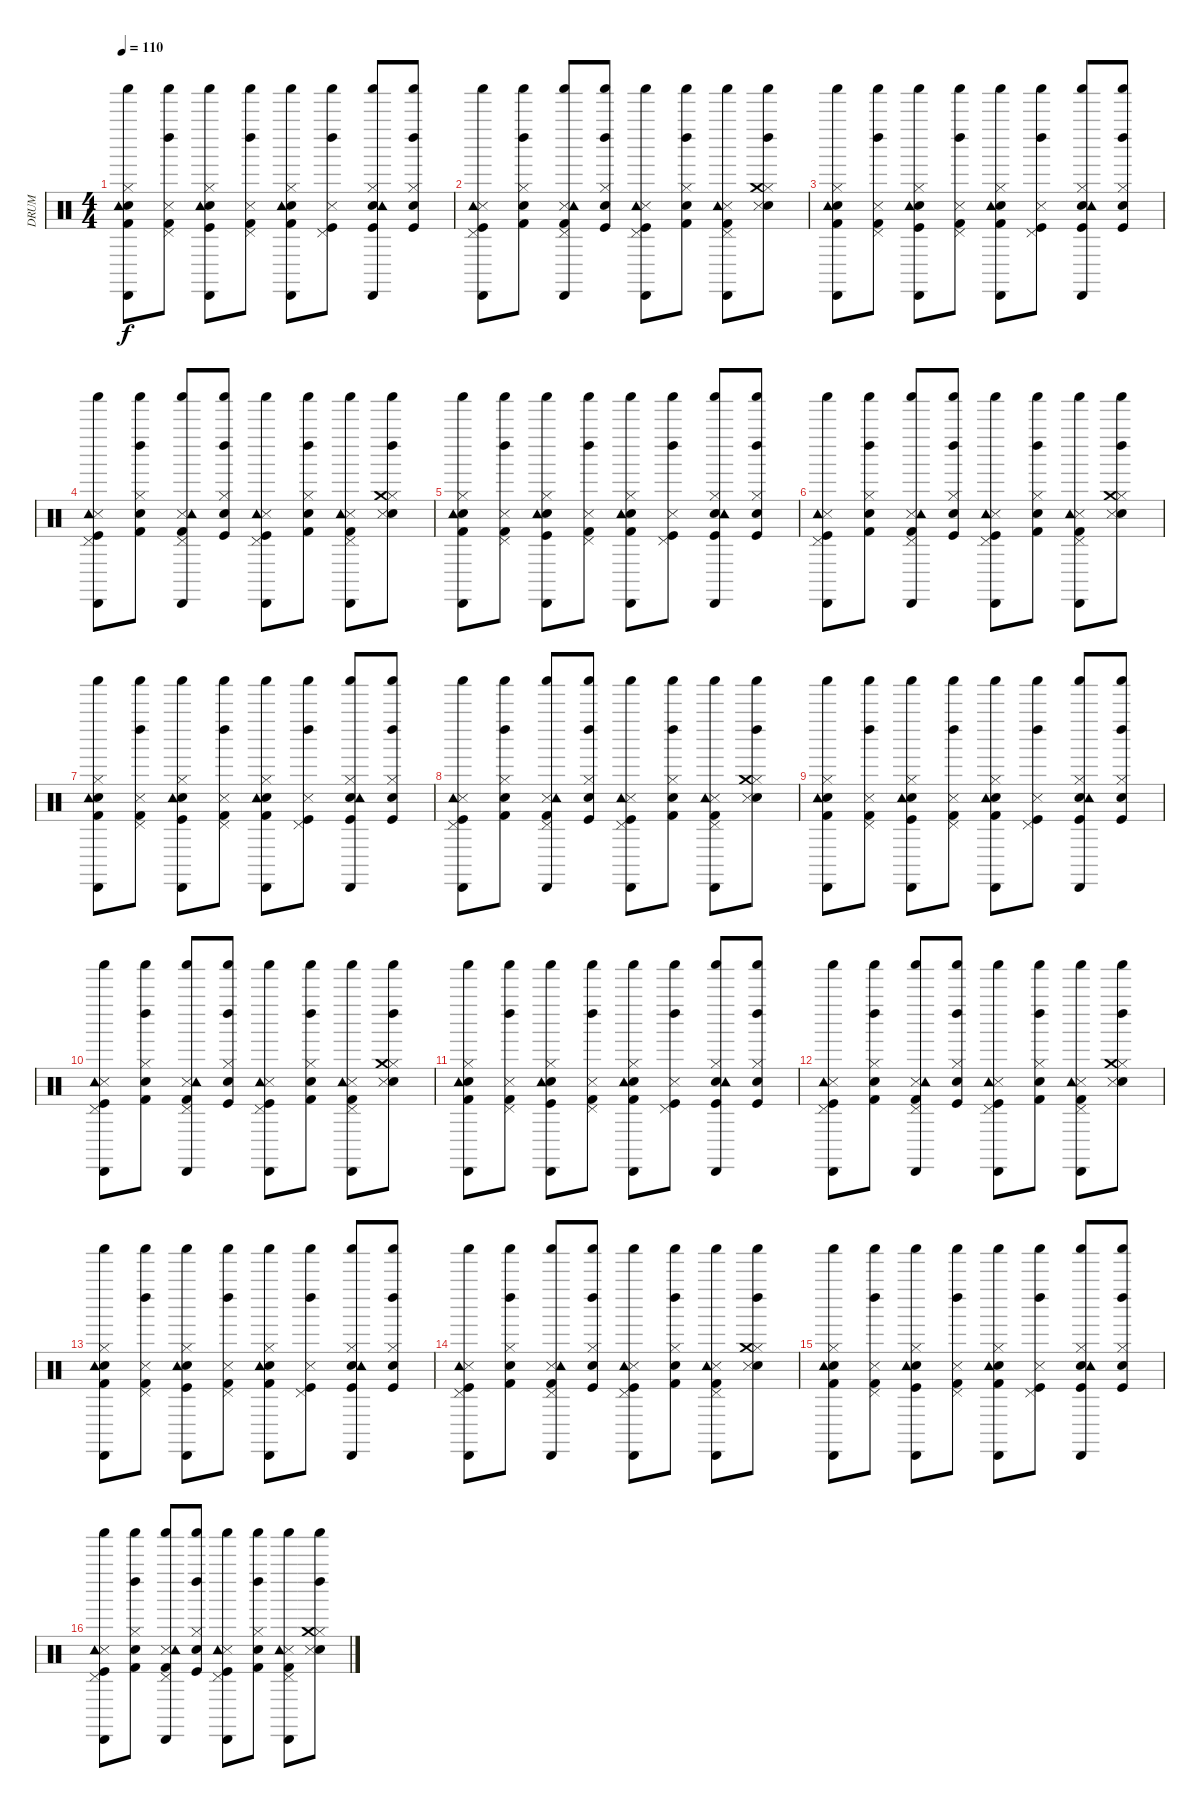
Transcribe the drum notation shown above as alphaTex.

\track ("DRUM" "DRUM") {instrument percussion}
\staff {score}
\articulation defaults
\ts (4 4)
\tempo 110
\clef neutral
\ks c
("Kick (hit) 2" "Snare (hit) 2" "Hi-Hat (closed)" "Shaker (hit)" "Cabasa (hit)" "Tambourine (hit)").8{dy f} ("Kick (hit) 2" "Snare (side stick) 3" "Pedal Hi-Hat (hit)" "Shaker (hit)" "Left Maraca (hit)").8 ("Kick (hit)" "Snare (hit) 2" "Hi-Hat (closed)" "Shaker (hit)" "Cabasa (hit)" "Tambourine (hit)").8 ("Kick (hit) 2" "Snare (side stick) 3" "Pedal Hi-Hat (hit)" "Shaker (hit)" "Left Maraca (hit)").8 ("Kick (hit) 2" "Snare (hit) 2" "Hi-Hat (closed)" "Shaker (hit)" "Cabasa (hit)" "Tambourine (hit)").8 ("Kick (hit)" "Snare (side stick) 3" "Pedal Hi-Hat (hit)" "Shaker (hit)" "Left Maraca (hit)").8 ("Kick (hit)" "Snare (hit) 2" "Hi-Hat (closed)" "Shaker (hit)" "Cabasa (hit)" "Tambourine (hit)").8 ("Kick (hit)" "Snare (hit) 2" "Hi-Hat (closed)" "Shaker (hit)" "Left Maraca (hit)").8 |
("Kick (hit)" "Snare (side stick) 3" "Pedal Hi-Hat (hit)" "Shaker (hit)" "Cabasa (hit)" "Tambourine (hit)").8 ("Kick (hit) 2" "Snare (hit) 2" "Hi-Hat (closed)" "Shaker (hit)" "Left Maraca (hit)").8 ("Kick (hit) 2" "Snare (side stick) 3" "Pedal Hi-Hat (hit)" "Shaker (hit)" "Cabasa (hit)" "Tambourine (hit)").8 ("Kick (hit)" "Snare (hit) 2" "Hi-Hat (closed)" "Shaker (hit)" "Left Maraca (hit)").8 ("Kick (hit)" "Snare (side stick) 3" "Pedal Hi-Hat (hit)" "Shaker (hit)" "Cabasa (hit)" "Tambourine (hit)").8 ("Kick (hit) 2" "Snare (hit) 2" "Hi-Hat (closed)" "Shaker (hit)" "Left Maraca (hit)").8 ("Kick (hit) 2" "Snare (side stick) 3" "Pedal Hi-Hat (hit)" "Shaker (hit)" "Cabasa (hit)" "Tambourine (hit)").8 ("Electric Snare (hit)" "Snare (side stick) 3" "Hi-Hat (closed)" "Shaker (hit)" "Left Maraca (hit)" "Crash medium (hit)").8 |
\section ("" "")
("Kick (hit) 2" "Snare (hit) 2" "Hi-Hat (closed)" "Shaker (hit)" "Cabasa (hit)" "Tambourine (hit)").8 ("Kick (hit) 2" "Snare (side stick) 3" "Pedal Hi-Hat (hit)" "Shaker (hit)" "Left Maraca (hit)").8 ("Kick (hit)" "Snare (hit) 2" "Hi-Hat (closed)" "Shaker (hit)" "Cabasa (hit)" "Tambourine (hit)").8 ("Kick (hit) 2" "Snare (side stick) 3" "Pedal Hi-Hat (hit)" "Shaker (hit)" "Left Maraca (hit)").8 ("Kick (hit) 2" "Snare (hit) 2" "Hi-Hat (closed)" "Shaker (hit)" "Cabasa (hit)" "Tambourine (hit)").8 ("Kick (hit)" "Snare (side stick) 3" "Pedal Hi-Hat (hit)" "Shaker (hit)" "Left Maraca (hit)").8 ("Kick (hit)" "Snare (hit) 2" "Hi-Hat (closed)" "Shaker (hit)" "Cabasa (hit)" "Tambourine (hit)").8 ("Kick (hit)" "Snare (hit) 2" "Hi-Hat (closed)" "Shaker (hit)" "Left Maraca (hit)").8 |
("Kick (hit)" "Snare (side stick) 3" "Pedal Hi-Hat (hit)" "Shaker (hit)" "Cabasa (hit)" "Tambourine (hit)").8 ("Kick (hit) 2" "Snare (hit) 2" "Hi-Hat (closed)" "Shaker (hit)" "Left Maraca (hit)").8 ("Kick (hit) 2" "Snare (side stick) 3" "Pedal Hi-Hat (hit)" "Shaker (hit)" "Cabasa (hit)" "Tambourine (hit)").8 ("Kick (hit)" "Snare (hit) 2" "Hi-Hat (closed)" "Shaker (hit)" "Left Maraca (hit)").8 ("Kick (hit)" "Snare (side stick) 3" "Pedal Hi-Hat (hit)" "Shaker (hit)" "Cabasa (hit)" "Tambourine (hit)").8 ("Kick (hit) 2" "Snare (hit) 2" "Hi-Hat (closed)" "Shaker (hit)" "Left Maraca (hit)").8 ("Kick (hit) 2" "Snare (side stick) 3" "Pedal Hi-Hat (hit)" "Shaker (hit)" "Cabasa (hit)" "Tambourine (hit)").8 ("Electric Snare (hit)" "Snare (side stick) 3" "Hi-Hat (closed)" "Shaker (hit)" "Left Maraca (hit)" "Crash medium (hit)").8 |
("Kick (hit) 2" "Snare (hit) 2" "Hi-Hat (closed)" "Shaker (hit)" "Cabasa (hit)" "Tambourine (hit)").8 ("Kick (hit) 2" "Snare (side stick) 3" "Pedal Hi-Hat (hit)" "Shaker (hit)" "Left Maraca (hit)").8 ("Kick (hit)" "Snare (hit) 2" "Hi-Hat (closed)" "Shaker (hit)" "Cabasa (hit)" "Tambourine (hit)").8 ("Kick (hit) 2" "Snare (side stick) 3" "Pedal Hi-Hat (hit)" "Shaker (hit)" "Left Maraca (hit)").8 ("Kick (hit) 2" "Snare (hit) 2" "Hi-Hat (closed)" "Shaker (hit)" "Cabasa (hit)" "Tambourine (hit)").8 ("Kick (hit)" "Snare (side stick) 3" "Pedal Hi-Hat (hit)" "Shaker (hit)" "Left Maraca (hit)").8 ("Kick (hit)" "Snare (hit) 2" "Hi-Hat (closed)" "Shaker (hit)" "Cabasa (hit)" "Tambourine (hit)").8 ("Kick (hit)" "Snare (hit) 2" "Hi-Hat (closed)" "Shaker (hit)" "Left Maraca (hit)").8 |
("Kick (hit)" "Snare (side stick) 3" "Pedal Hi-Hat (hit)" "Shaker (hit)" "Cabasa (hit)" "Tambourine (hit)").8 ("Kick (hit) 2" "Snare (hit) 2" "Hi-Hat (closed)" "Shaker (hit)" "Left Maraca (hit)").8 ("Kick (hit) 2" "Snare (side stick) 3" "Pedal Hi-Hat (hit)" "Shaker (hit)" "Cabasa (hit)" "Tambourine (hit)").8 ("Kick (hit)" "Snare (hit) 2" "Hi-Hat (closed)" "Shaker (hit)" "Left Maraca (hit)").8 ("Kick (hit)" "Snare (side stick) 3" "Pedal Hi-Hat (hit)" "Shaker (hit)" "Cabasa (hit)" "Tambourine (hit)").8 ("Kick (hit) 2" "Snare (hit) 2" "Hi-Hat (closed)" "Shaker (hit)" "Left Maraca (hit)").8 ("Kick (hit) 2" "Snare (side stick) 3" "Pedal Hi-Hat (hit)" "Shaker (hit)" "Cabasa (hit)" "Tambourine (hit)").8 ("Electric Snare (hit)" "Snare (side stick) 3" "Hi-Hat (closed)" "Shaker (hit)" "Left Maraca (hit)" "Crash medium (hit)").8 |
("Kick (hit) 2" "Snare (hit) 2" "Hi-Hat (closed)" "Shaker (hit)" "Cabasa (hit)" "Tambourine (hit)").8 ("Kick (hit) 2" "Snare (side stick) 3" "Pedal Hi-Hat (hit)" "Shaker (hit)" "Left Maraca (hit)").8 ("Kick (hit)" "Snare (hit) 2" "Hi-Hat (closed)" "Shaker (hit)" "Cabasa (hit)" "Tambourine (hit)").8 ("Kick (hit) 2" "Snare (side stick) 3" "Pedal Hi-Hat (hit)" "Shaker (hit)" "Left Maraca (hit)").8 ("Kick (hit) 2" "Snare (hit) 2" "Hi-Hat (closed)" "Shaker (hit)" "Cabasa (hit)" "Tambourine (hit)").8 ("Kick (hit)" "Snare (side stick) 3" "Pedal Hi-Hat (hit)" "Shaker (hit)" "Left Maraca (hit)").8 ("Kick (hit)" "Snare (hit) 2" "Hi-Hat (closed)" "Shaker (hit)" "Cabasa (hit)" "Tambourine (hit)").8 ("Kick (hit)" "Snare (hit) 2" "Hi-Hat (closed)" "Shaker (hit)" "Left Maraca (hit)").8 |
("Kick (hit)" "Snare (side stick) 3" "Pedal Hi-Hat (hit)" "Shaker (hit)" "Cabasa (hit)" "Tambourine (hit)").8 ("Kick (hit) 2" "Snare (hit) 2" "Hi-Hat (closed)" "Shaker (hit)" "Left Maraca (hit)").8 ("Kick (hit) 2" "Snare (side stick) 3" "Pedal Hi-Hat (hit)" "Shaker (hit)" "Cabasa (hit)" "Tambourine (hit)").8 ("Kick (hit)" "Snare (hit) 2" "Hi-Hat (closed)" "Shaker (hit)" "Left Maraca (hit)").8 ("Kick (hit)" "Snare (side stick) 3" "Pedal Hi-Hat (hit)" "Shaker (hit)" "Cabasa (hit)" "Tambourine (hit)").8 ("Kick (hit) 2" "Snare (hit) 2" "Hi-Hat (closed)" "Shaker (hit)" "Left Maraca (hit)").8 ("Kick (hit) 2" "Snare (side stick) 3" "Pedal Hi-Hat (hit)" "Shaker (hit)" "Cabasa (hit)" "Tambourine (hit)").8 ("Electric Snare (hit)" "Snare (side stick) 3" "Hi-Hat (closed)" "Shaker (hit)" "Left Maraca (hit)" "Crash medium (hit)").8 |
("Kick (hit) 2" "Snare (hit) 2" "Hi-Hat (closed)" "Shaker (hit)" "Cabasa (hit)" "Tambourine (hit)").8 ("Kick (hit) 2" "Snare (side stick) 3" "Pedal Hi-Hat (hit)" "Shaker (hit)" "Left Maraca (hit)").8 ("Kick (hit)" "Snare (hit) 2" "Hi-Hat (closed)" "Shaker (hit)" "Cabasa (hit)" "Tambourine (hit)").8 ("Kick (hit) 2" "Snare (side stick) 3" "Pedal Hi-Hat (hit)" "Shaker (hit)" "Left Maraca (hit)").8 ("Kick (hit) 2" "Snare (hit) 2" "Hi-Hat (closed)" "Shaker (hit)" "Cabasa (hit)" "Tambourine (hit)").8 ("Kick (hit)" "Snare (side stick) 3" "Pedal Hi-Hat (hit)" "Shaker (hit)" "Left Maraca (hit)").8 ("Kick (hit)" "Snare (hit) 2" "Hi-Hat (closed)" "Shaker (hit)" "Cabasa (hit)" "Tambourine (hit)").8 ("Kick (hit)" "Snare (hit) 2" "Hi-Hat (closed)" "Shaker (hit)" "Left Maraca (hit)").8 |
("Kick (hit)" "Snare (side stick) 3" "Pedal Hi-Hat (hit)" "Shaker (hit)" "Cabasa (hit)" "Tambourine (hit)").8 ("Kick (hit) 2" "Snare (hit) 2" "Hi-Hat (closed)" "Shaker (hit)" "Left Maraca (hit)").8 ("Kick (hit) 2" "Snare (side stick) 3" "Pedal Hi-Hat (hit)" "Shaker (hit)" "Cabasa (hit)" "Tambourine (hit)").8 ("Kick (hit)" "Snare (hit) 2" "Hi-Hat (closed)" "Shaker (hit)" "Left Maraca (hit)").8 ("Kick (hit)" "Snare (side stick) 3" "Pedal Hi-Hat (hit)" "Shaker (hit)" "Cabasa (hit)" "Tambourine (hit)").8 ("Kick (hit) 2" "Snare (hit) 2" "Hi-Hat (closed)" "Shaker (hit)" "Left Maraca (hit)").8 ("Kick (hit) 2" "Snare (side stick) 3" "Pedal Hi-Hat (hit)" "Shaker (hit)" "Cabasa (hit)" "Tambourine (hit)").8 ("Electric Snare (hit)" "Snare (side stick) 3" "Hi-Hat (closed)" "Shaker (hit)" "Left Maraca (hit)" "Crash medium (hit)").8 |
("Kick (hit) 2" "Snare (hit) 2" "Hi-Hat (closed)" "Shaker (hit)" "Cabasa (hit)" "Tambourine (hit)").8 ("Kick (hit) 2" "Snare (side stick) 3" "Pedal Hi-Hat (hit)" "Shaker (hit)" "Left Maraca (hit)").8 ("Kick (hit)" "Snare (hit) 2" "Hi-Hat (closed)" "Shaker (hit)" "Cabasa (hit)" "Tambourine (hit)").8 ("Kick (hit) 2" "Snare (side stick) 3" "Pedal Hi-Hat (hit)" "Shaker (hit)" "Left Maraca (hit)").8 ("Kick (hit) 2" "Snare (hit) 2" "Hi-Hat (closed)" "Shaker (hit)" "Cabasa (hit)" "Tambourine (hit)").8 ("Kick (hit)" "Snare (side stick) 3" "Pedal Hi-Hat (hit)" "Shaker (hit)" "Left Maraca (hit)").8 ("Kick (hit)" "Snare (hit) 2" "Hi-Hat (closed)" "Shaker (hit)" "Cabasa (hit)" "Tambourine (hit)").8 ("Kick (hit)" "Snare (hit) 2" "Hi-Hat (closed)" "Shaker (hit)" "Left Maraca (hit)").8 |
("Kick (hit)" "Snare (side stick) 3" "Pedal Hi-Hat (hit)" "Shaker (hit)" "Cabasa (hit)" "Tambourine (hit)").8 ("Kick (hit) 2" "Snare (hit) 2" "Hi-Hat (closed)" "Shaker (hit)" "Left Maraca (hit)").8 ("Kick (hit) 2" "Snare (side stick) 3" "Pedal Hi-Hat (hit)" "Shaker (hit)" "Cabasa (hit)" "Tambourine (hit)").8 ("Kick (hit)" "Snare (hit) 2" "Hi-Hat (closed)" "Shaker (hit)" "Left Maraca (hit)").8 ("Kick (hit)" "Snare (side stick) 3" "Pedal Hi-Hat (hit)" "Shaker (hit)" "Cabasa (hit)" "Tambourine (hit)").8 ("Kick (hit) 2" "Snare (hit) 2" "Hi-Hat (closed)" "Shaker (hit)" "Left Maraca (hit)").8 ("Kick (hit) 2" "Snare (side stick) 3" "Pedal Hi-Hat (hit)" "Shaker (hit)" "Cabasa (hit)" "Tambourine (hit)").8 ("Electric Snare (hit)" "Snare (side stick) 3" "Hi-Hat (closed)" "Shaker (hit)" "Left Maraca (hit)" "Crash medium (hit)").8 |
("Kick (hit) 2" "Snare (hit) 2" "Hi-Hat (closed)" "Shaker (hit)" "Cabasa (hit)" "Tambourine (hit)").8 ("Kick (hit) 2" "Snare (side stick) 3" "Pedal Hi-Hat (hit)" "Shaker (hit)" "Left Maraca (hit)").8 ("Kick (hit)" "Snare (hit) 2" "Hi-Hat (closed)" "Shaker (hit)" "Cabasa (hit)" "Tambourine (hit)").8 ("Kick (hit) 2" "Snare (side stick) 3" "Pedal Hi-Hat (hit)" "Shaker (hit)" "Left Maraca (hit)").8 ("Kick (hit) 2" "Snare (hit) 2" "Hi-Hat (closed)" "Shaker (hit)" "Cabasa (hit)" "Tambourine (hit)").8 ("Kick (hit)" "Snare (side stick) 3" "Pedal Hi-Hat (hit)" "Shaker (hit)" "Left Maraca (hit)").8 ("Kick (hit)" "Snare (hit) 2" "Hi-Hat (closed)" "Shaker (hit)" "Cabasa (hit)" "Tambourine (hit)").8 ("Kick (hit)" "Snare (hit) 2" "Hi-Hat (closed)" "Shaker (hit)" "Left Maraca (hit)").8 |
("Kick (hit)" "Snare (side stick) 3" "Pedal Hi-Hat (hit)" "Shaker (hit)" "Cabasa (hit)" "Tambourine (hit)").8 ("Kick (hit) 2" "Snare (hit) 2" "Hi-Hat (closed)" "Shaker (hit)" "Left Maraca (hit)").8 ("Kick (hit) 2" "Snare (side stick) 3" "Pedal Hi-Hat (hit)" "Shaker (hit)" "Cabasa (hit)" "Tambourine (hit)").8 ("Kick (hit)" "Snare (hit) 2" "Hi-Hat (closed)" "Shaker (hit)" "Left Maraca (hit)").8 ("Kick (hit)" "Snare (side stick) 3" "Pedal Hi-Hat (hit)" "Shaker (hit)" "Cabasa (hit)" "Tambourine (hit)").8 ("Kick (hit) 2" "Snare (hit) 2" "Hi-Hat (closed)" "Shaker (hit)" "Left Maraca (hit)").8 ("Kick (hit) 2" "Snare (side stick) 3" "Pedal Hi-Hat (hit)" "Shaker (hit)" "Cabasa (hit)" "Tambourine (hit)").8 ("Electric Snare (hit)" "Snare (side stick) 3" "Hi-Hat (closed)" "Shaker (hit)" "Left Maraca (hit)" "Crash medium (hit)").8 |
("Kick (hit) 2" "Snare (hit) 2" "Hi-Hat (closed)" "Shaker (hit)" "Cabasa (hit)" "Tambourine (hit)").8 ("Kick (hit) 2" "Snare (side stick) 3" "Pedal Hi-Hat (hit)" "Shaker (hit)" "Left Maraca (hit)").8 ("Kick (hit)" "Snare (hit) 2" "Hi-Hat (closed)" "Shaker (hit)" "Cabasa (hit)" "Tambourine (hit)").8 ("Kick (hit) 2" "Snare (side stick) 3" "Pedal Hi-Hat (hit)" "Shaker (hit)" "Left Maraca (hit)").8 ("Kick (hit) 2" "Snare (hit) 2" "Hi-Hat (closed)" "Shaker (hit)" "Cabasa (hit)" "Tambourine (hit)").8 ("Kick (hit)" "Snare (side stick) 3" "Pedal Hi-Hat (hit)" "Shaker (hit)" "Left Maraca (hit)").8 ("Kick (hit)" "Snare (hit) 2" "Hi-Hat (closed)" "Shaker (hit)" "Cabasa (hit)" "Tambourine (hit)").8 ("Kick (hit)" "Snare (hit) 2" "Hi-Hat (closed)" "Shaker (hit)" "Left Maraca (hit)").8 |
("Kick (hit)" "Snare (side stick) 3" "Pedal Hi-Hat (hit)" "Shaker (hit)" "Cabasa (hit)" "Tambourine (hit)").8 ("Kick (hit) 2" "Snare (hit) 2" "Hi-Hat (closed)" "Shaker (hit)" "Left Maraca (hit)").8 ("Kick (hit) 2" "Snare (side stick) 3" "Pedal Hi-Hat (hit)" "Shaker (hit)" "Cabasa (hit)" "Tambourine (hit)").8 ("Kick (hit)" "Snare (hit) 2" "Hi-Hat (closed)" "Shaker (hit)" "Left Maraca (hit)").8 ("Kick (hit)" "Snare (side stick) 3" "Pedal Hi-Hat (hit)" "Shaker (hit)" "Cabasa (hit)" "Tambourine (hit)").8 ("Kick (hit) 2" "Snare (hit) 2" "Hi-Hat (closed)" "Shaker (hit)" "Left Maraca (hit)").8 ("Kick (hit) 2" "Snare (side stick) 3" "Pedal Hi-Hat (hit)" "Shaker (hit)" "Cabasa (hit)" "Tambourine (hit)").8 ("Electric Snare (hit)" "Snare (side stick) 3" "Hi-Hat (closed)" "Shaker (hit)" "Left Maraca (hit)" "Crash medium (hit)").8
